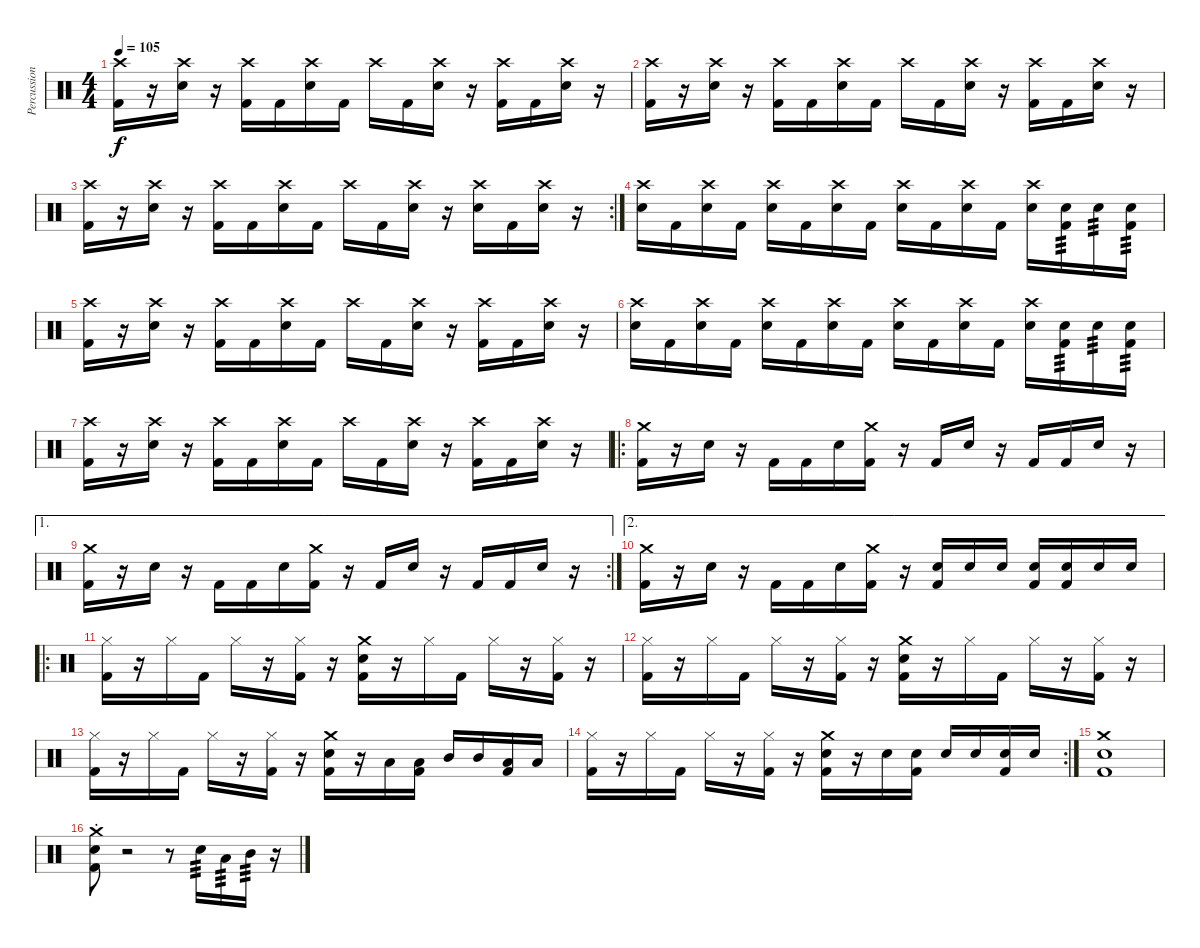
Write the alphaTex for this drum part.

\track ("Percussion" "Percussion") {instrument percussion}
\staff {score}
\articulation defaults
\ts (4 4)
\tempo 105
\clef neutral
\ks c
("Crash high (hit)" "Kick (hit) 2").16{dy f} r.16 ("Snare (hit) 2" "Crash high (hit)").16 r.16 ("Crash high (hit)" "Kick (hit) 2").16 "Kick (hit) 2".16 ("Snare (hit) 2" "Crash high (hit)").16 "Kick (hit) 2".16 "Crash high (hit)".16 "Kick (hit) 2".16 ("Snare (hit) 2" "Crash high (hit)").16 r.16 ("Crash high (hit)" "Kick (hit) 2").16 "Kick (hit) 2".16 ("Snare (hit) 2" "Crash high (hit)").16 r.16 |
("Crash high (hit)" "Kick (hit) 2").16 r.16 ("Snare (hit) 2" "Crash high (hit)").16 r.16 ("Crash high (hit)" "Kick (hit) 2").16 "Kick (hit) 2".16 ("Snare (hit) 2" "Crash high (hit)").16 "Kick (hit) 2".16 "Crash high (hit)".16 "Kick (hit) 2".16 ("Snare (hit) 2" "Crash high (hit)").16 r.16 ("Crash high (hit)" "Kick (hit) 2").16 "Kick (hit) 2".16 ("Snare (hit) 2" "Crash high (hit)").16 r.16 |
\rc 2
("Crash high (hit)" "Kick (hit) 2").16 r.16 ("Snare (hit) 2" "Crash high (hit)").16 r.16 ("Crash high (hit)" "Kick (hit) 2").16 "Kick (hit) 2".16 ("Snare (hit) 2" "Crash high (hit)").16 "Kick (hit) 2".16 "Crash high (hit)".16 "Kick (hit) 2".16 ("Snare (hit) 2" "Crash high (hit)").16 r.16 ("Snare (hit) 2" "Crash high (hit)").16 "Kick (hit) 2".16 ("Snare (hit) 2" "Crash high (hit)").16 r.16 |
("Snare (hit) 2" "Crash high (hit)").16 "Kick (hit) 2".16 ("Snare (hit) 2" "Crash high (hit)").16 "Kick (hit) 2".16 ("Snare (hit) 2" "Crash high (hit)").16 "Kick (hit) 2".16 ("Snare (hit) 2" "Crash high (hit)").16 "Kick (hit) 2".16 ("Snare (hit) 2" "Crash high (hit)").16 "Kick (hit) 2".16 ("Snare (hit) 2" "Crash high (hit)").16 "Kick (hit) 2".16 ("Snare (hit) 2" "Crash high (hit)").16 ("Snare (hit) 2" "Kick (hit) 2").16{tp 3} "Snare (hit) 2".16{tp 3} ("Snare (hit) 2" "Kick (hit) 2").16{tp 3} |
("Crash high (hit)" "Kick (hit) 2").16 r.16 ("Snare (hit) 2" "Crash high (hit)").16 r.16 ("Crash high (hit)" "Kick (hit) 2").16 "Kick (hit) 2".16 ("Snare (hit) 2" "Crash high (hit)").16 "Kick (hit) 2".16 "Crash high (hit)".16 "Kick (hit) 2".16 ("Snare (hit) 2" "Crash high (hit)").16 r.16 ("Crash high (hit)" "Kick (hit) 2").16 "Kick (hit) 2".16 ("Snare (hit) 2" "Crash high (hit)").16 r.16 |
("Snare (hit) 2" "Crash high (hit)").16 "Kick (hit) 2".16 ("Snare (hit) 2" "Crash high (hit)").16 "Kick (hit) 2".16 ("Snare (hit) 2" "Crash high (hit)").16 "Kick (hit) 2".16 ("Snare (hit) 2" "Crash high (hit)").16 "Kick (hit) 2".16 ("Snare (hit) 2" "Crash high (hit)").16 "Kick (hit) 2".16 ("Snare (hit) 2" "Crash high (hit)").16 "Kick (hit) 2".16 ("Snare (hit) 2" "Crash high (hit)").16 ("Snare (hit) 2" "Kick (hit) 2").16{tp 3} "Snare (hit) 2".16{tp 3} ("Snare (hit) 2" "Kick (hit) 2").16{tp 3} |
("Crash high (hit)" "Kick (hit) 2").16 r.16 ("Snare (hit) 2" "Crash high (hit)").16 r.16 ("Crash high (hit)" "Kick (hit) 2").16 "Kick (hit) 2".16 ("Snare (hit) 2" "Crash high (hit)").16 "Kick (hit) 2".16 "Crash high (hit)".16 "Kick (hit) 2".16 ("Snare (hit) 2" "Crash high (hit)").16 r.16 ("Crash high (hit)" "Kick (hit) 2").16 "Kick (hit) 2".16 ("Snare (hit) 2" "Crash high (hit)").16 r.16 |
\ro
("Crash medium (hit)" "Kick (hit) 2").16 r.16 "Snare (hit) 2".16 r.16 "Kick (hit) 2".16 "Kick (hit) 2".16 "Snare (hit) 2".16 ("Crash medium (hit)" "Kick (hit) 2").16 r.16 "Kick (hit) 2".16 "Snare (hit) 2".16 r.16 "Kick (hit) 2".16 "Kick (hit) 2".16 "Snare (hit) 2".16 r.16 |
\ae 1
\rc 2
("Crash medium (hit)" "Kick (hit) 2").16 r.16 "Snare (hit) 2".16 r.16 "Kick (hit) 2".16 "Kick (hit) 2".16 "Snare (hit) 2".16 ("Crash medium (hit)" "Kick (hit) 2").16 r.16 "Kick (hit) 2".16 "Snare (hit) 2".16 r.16 "Kick (hit) 2".16 "Kick (hit) 2".16 "Snare (hit) 2".16 r.16 |
\ae 2
("Crash medium (hit)" "Kick (hit) 2").16 r.16 "Snare (hit) 2".16 r.16 "Kick (hit) 2".16 "Kick (hit) 2".16 "Snare (hit) 2".16 ("Crash medium (hit)" "Kick (hit) 2").16 r.16 ("Snare (hit) 2" "Kick (hit) 2").16 "Snare (hit) 2".16 "Snare (hit) 2".16 ("Snare (hit) 2" "Kick (hit) 2").16 ("Snare (hit) 2" "Kick (hit) 2").16 "Snare (hit) 2".16 "Snare (hit) 2".16 |
\ro
("Hi-Hat (closed)" "Kick (hit) 2").16 r.16 "Hi-Hat (closed)".16 "Kick (hit) 2".16 "Hi-Hat (closed)".16 r.16 ("Hi-Hat (closed)" "Kick (hit) 2").16 r.16 ("Snare (hit) 2" "Crash medium (hit)" "Kick (hit) 2").16 r.16 "Hi-Hat (closed)".16 "Kick (hit) 2".16 "Hi-Hat (closed)".16 r.16 ("Hi-Hat (closed)" "Kick (hit) 2").16 r.16 |
("Hi-Hat (closed)" "Kick (hit) 2").16 r.16 "Hi-Hat (closed)".16 "Kick (hit) 2".16 "Hi-Hat (closed)".16 r.16 ("Hi-Hat (closed)" "Kick (hit) 2").16 r.16 ("Snare (hit) 2" "Crash medium (hit)" "Kick (hit) 2").16 r.16 "Hi-Hat (closed)".16 "Kick (hit) 2".16 "Hi-Hat (closed)".16 r.16 ("Hi-Hat (closed)" "Kick (hit) 2").16 r.16 |
("Hi-Hat (closed)" "Kick (hit) 2").16 r.16 "Hi-Hat (closed)".16 "Kick (hit) 2".16 "Hi-Hat (closed)".16 r.16 ("Hi-Hat (closed)" "Kick (hit) 2").16 r.16 ("Snare (hit) 2" "Crash medium (hit)" "Kick (hit) 2").16 r.16 "Low Floor Tom (hit)".16 ("Low Floor Tom (hit)" "Kick (hit) 2").16 "Mid Tom (hit)".16 "Mid Tom (hit)".16 ("Low Tom (hit)" "Kick (hit) 2").16 "Low Tom (hit)".16 |
\rc 2
("Hi-Hat (closed)" "Kick (hit) 2").16 r.16 "Hi-Hat (closed)".16 "Kick (hit) 2".16 "Hi-Hat (closed)".16 r.16 ("Hi-Hat (closed)" "Kick (hit) 2").16 r.16 ("Snare (hit) 2" "Crash medium (hit)" "Kick (hit) 2").16 r.16 "Snare (hit) 2".16 ("Snare (hit) 2" "Kick (hit) 2").16 "Snare (hit) 2".16 "Snare (hit) 2".16 ("Snare (hit) 2" "Kick (hit) 2").16 "Snare (hit) 2".16 |
("Snare (hit) 2" "Crash medium (hit)" "Kick (hit) 2").1 |
("Snare (hit) 2" "Crash medium (hit)"{st} "Kick (hit) 2").8 r.2 r.8 "Snare (hit) 2".16{tp 3} "Low Tom (hit)".16{tp 3} "Mid Tom (hit)".16{tp 3} r.16
